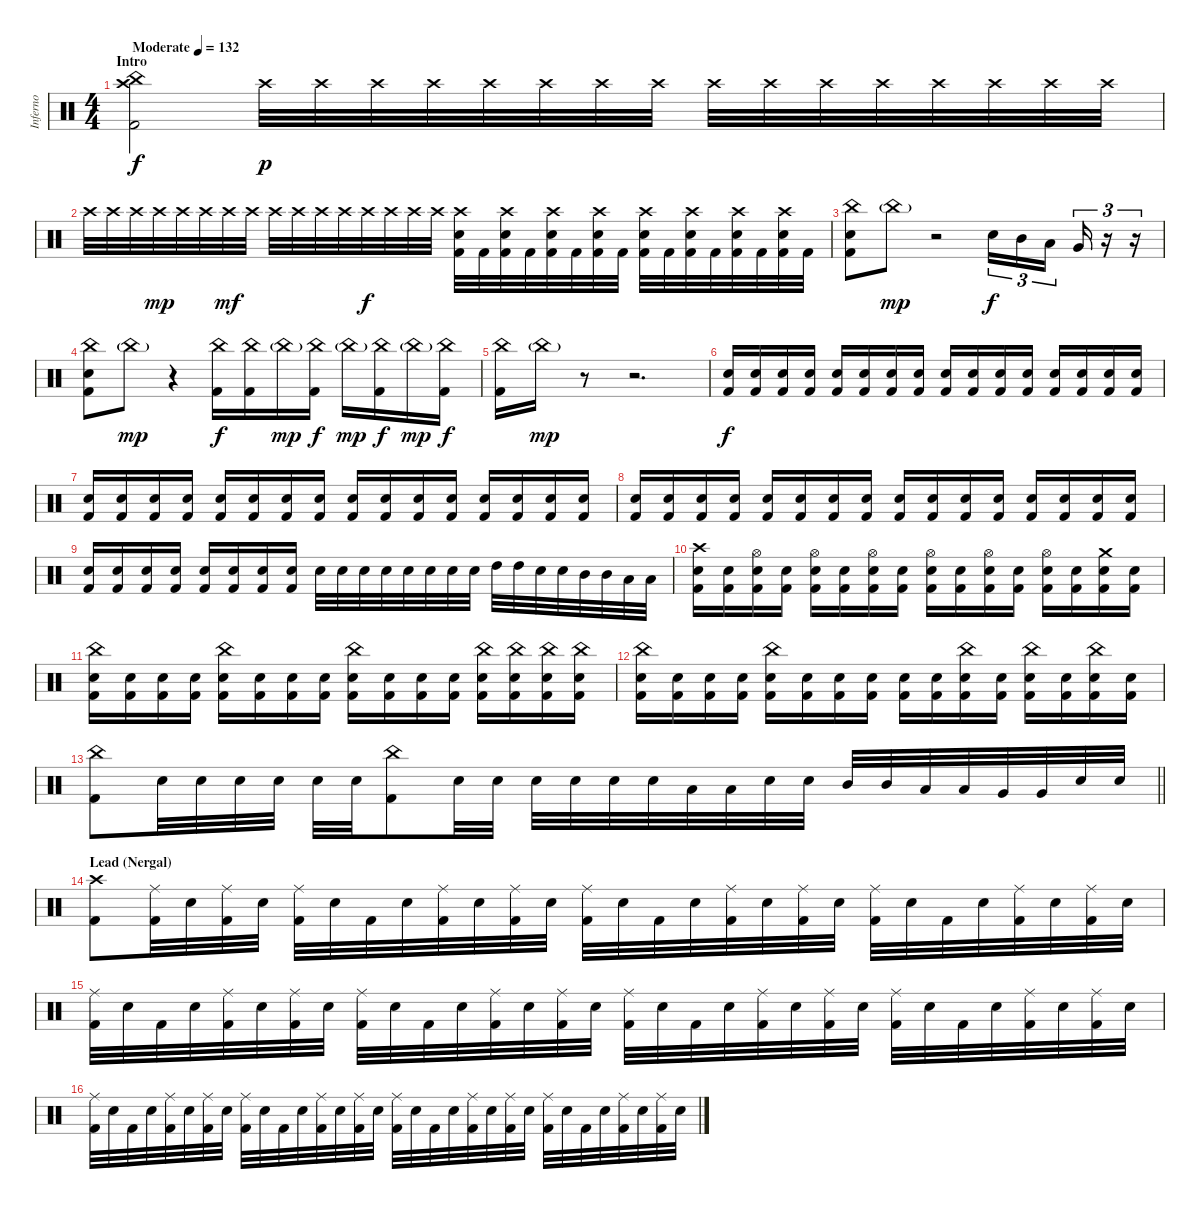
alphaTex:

\track ("Inferno" "Inferno") {instrument percussion}
\staff {score}
\articulation defaults
\ts (4 4)
\section ("" "Intro")
\tempo (132 "Moderate")
\clef neutral
\ks c
("Crash high (hit)" "China (hit)" "Kick (hit) 2").2{dy f} "Crash high (hit)".32{dy p} "Crash high (hit)".32 "Crash high (hit)".32 "Crash high (hit)".32 "Crash high (hit)".32 "Crash high (hit)".32 "Crash high (hit)".32 "Crash high (hit)".32 "Crash high (hit)".32 "Crash high (hit)".32 "Crash high (hit)".32 "Crash high (hit)".32 "Crash high (hit)".32 "Crash high (hit)".32 "Crash high (hit)".32 "Crash high (hit)".32 |
"Crash high (hit)".32 "Crash high (hit)".32 "Crash high (hit)".32 "Crash high (hit)".32{dy mp} "Crash high (hit)".32 "Crash high (hit)".32 "Crash high (hit)".32{dy mf} "Crash high (hit)".32 "Crash high (hit)".32 "Crash high (hit)".32 "Crash high (hit)".32 "Crash high (hit)".32 "Crash high (hit)".32{dy f} "Crash high (hit)".32 "Crash high (hit)".32 "Crash high (hit)".32 ("Crash high (hit)" "Electric Snare (hit)" "Kick (hit) 2").32 "Kick (hit) 2".32 ("Crash high (hit)" "Electric Snare (hit)" "Kick (hit) 2").32 "Kick (hit) 2".32 ("Crash high (hit)" "Electric Snare (hit)" "Kick (hit) 2").32 "Kick (hit) 2".32 ("Crash high (hit)" "Electric Snare (hit)" "Kick (hit) 2").32 "Kick (hit) 2".32 ("Crash high (hit)" "Electric Snare (hit)" "Kick (hit) 2").32 "Kick (hit) 2".32 ("Crash high (hit)" "Electric Snare (hit)" "Kick (hit) 2").32 "Kick (hit) 2".32 ("Crash high (hit)" "Electric Snare (hit)" "Kick (hit) 2").32 "Kick (hit) 2".32 ("Crash high (hit)" "Electric Snare (hit)" "Kick (hit) 2").32 "Kick (hit) 2".32 |
("China (hit)" "Electric Snare (hit)" "Kick (hit) 2").8 "China (hit)"{g}.8{dy mp} r.2 "Electric Snare (hit)".16{tu (3 2) dy f} "Mid Tom (hit)".16{tu (3 2)} "Low Tom (hit)".16{tu (3 2) beam splitsecondary} "Very Low Tom (hit)".16{tu (3 2)} r.16{tu (3 2)} r.16{tu (3 2)} |
("China (hit)" "Electric Snare (hit)" "Kick (hit) 2").8 "China (hit)"{g}.8{dy mp} r.4 ("China (hit)" "Kick (hit) 2").16{dy f} ("China (hit)" "Kick (hit) 2").16 "China (hit)"{g}.16{dy mp} ("China (hit)" "Kick (hit) 2").16{dy f} "China (hit)"{g}.16{dy mp} ("China (hit)" "Kick (hit) 2").16{dy f} "China (hit)"{g}.16{dy mp} ("China (hit)" "Kick (hit) 2").16{dy f} |
("China (hit)" "Kick (hit) 2").16 "China (hit)"{g}.16{dy mp} r.8 r.2{d} |
("Electric Snare (hit)" "Kick (hit) 2").16{dy f} ("Electric Snare (hit)" "Kick (hit) 2").16 ("Electric Snare (hit)" "Kick (hit) 2").16 ("Electric Snare (hit)" "Kick (hit) 2").16 ("Electric Snare (hit)" "Kick (hit) 2").16 ("Electric Snare (hit)" "Kick (hit) 2").16 ("Electric Snare (hit)" "Kick (hit) 2").16 ("Electric Snare (hit)" "Kick (hit) 2").16 ("Electric Snare (hit)" "Kick (hit) 2").16 ("Electric Snare (hit)" "Kick (hit) 2").16 ("Electric Snare (hit)" "Kick (hit) 2").16 ("Electric Snare (hit)" "Kick (hit) 2").16 ("Electric Snare (hit)" "Kick (hit) 2").16 ("Electric Snare (hit)" "Kick (hit) 2").16 ("Electric Snare (hit)" "Kick (hit) 2").16 ("Electric Snare (hit)" "Kick (hit) 2").16 |
("Electric Snare (hit)" "Kick (hit) 2").16 ("Electric Snare (hit)" "Kick (hit) 2").16 ("Electric Snare (hit)" "Kick (hit) 2").16 ("Electric Snare (hit)" "Kick (hit) 2").16 ("Electric Snare (hit)" "Kick (hit) 2").16 ("Electric Snare (hit)" "Kick (hit) 2").16 ("Electric Snare (hit)" "Kick (hit) 2").16 ("Electric Snare (hit)" "Kick (hit) 2").16 ("Electric Snare (hit)" "Kick (hit) 2").16 ("Electric Snare (hit)" "Kick (hit) 2").16 ("Electric Snare (hit)" "Kick (hit) 2").16 ("Electric Snare (hit)" "Kick (hit) 2").16 ("Electric Snare (hit)" "Kick (hit) 2").16 ("Electric Snare (hit)" "Kick (hit) 2").16 ("Electric Snare (hit)" "Kick (hit) 2").16 ("Electric Snare (hit)" "Kick (hit) 2").16 |
("Electric Snare (hit)" "Kick (hit) 2").16 ("Electric Snare (hit)" "Kick (hit) 2").16 ("Electric Snare (hit)" "Kick (hit) 2").16 ("Electric Snare (hit)" "Kick (hit) 2").16 ("Electric Snare (hit)" "Kick (hit) 2").16 ("Electric Snare (hit)" "Kick (hit) 2").16 ("Electric Snare (hit)" "Kick (hit) 2").16 ("Electric Snare (hit)" "Kick (hit) 2").16 ("Electric Snare (hit)" "Kick (hit) 2").16 ("Electric Snare (hit)" "Kick (hit) 2").16 ("Electric Snare (hit)" "Kick (hit) 2").16 ("Electric Snare (hit)" "Kick (hit) 2").16 ("Electric Snare (hit)" "Kick (hit) 2").16 ("Electric Snare (hit)" "Kick (hit) 2").16 ("Electric Snare (hit)" "Kick (hit) 2").16 ("Electric Snare (hit)" "Kick (hit) 2").16 |
("Electric Snare (hit)" "Kick (hit) 2").16 ("Electric Snare (hit)" "Kick (hit) 2").16 ("Electric Snare (hit)" "Kick (hit) 2").16 ("Electric Snare (hit)" "Kick (hit) 2").16 ("Electric Snare (hit)" "Kick (hit) 2").16 ("Electric Snare (hit)" "Kick (hit) 2").16 ("Electric Snare (hit)" "Kick (hit) 2").16 ("Electric Snare (hit)" "Kick (hit) 2").16 "Electric Snare (hit)".32 "Electric Snare (hit)".32 "Electric Snare (hit)".32 "Electric Snare (hit)".32 "Electric Snare (hit)".32 "Electric Snare (hit)".32 "Electric Snare (hit)".32 "Electric Snare (hit)".32 "High Tom (hit)".32 "High Tom (hit)".32 "Electric Snare (hit)".32 "Electric Snare (hit)".32 "Mid Tom (hit)".32 "Mid Tom (hit)".32 "Low Tom (hit)".32 "Low Tom (hit)".32 |
("Crash high (hit)" "Electric Snare (hit)" "Kick (hit) 2").16 ("Electric Snare (hit)" "Kick (hit) 2").16 ("Hi-Hat (open)" "Electric Snare (hit)" "Kick (hit) 2").16 ("Electric Snare (hit)" "Kick (hit) 2").16 ("Hi-Hat (open)" "Electric Snare (hit)" "Kick (hit) 2").16 ("Electric Snare (hit)" "Kick (hit) 2").16 ("Hi-Hat (open)" "Electric Snare (hit)" "Kick (hit) 2").16 ("Electric Snare (hit)" "Kick (hit) 2").16 ("Hi-Hat (open)" "Electric Snare (hit)" "Kick (hit) 2").16 ("Electric Snare (hit)" "Kick (hit) 2").16 ("Hi-Hat (open)" "Electric Snare (hit)" "Kick (hit) 2").16 ("Electric Snare (hit)" "Kick (hit) 2").16 ("Hi-Hat (open)" "Electric Snare (hit)" "Kick (hit) 2").16 ("Electric Snare (hit)" "Kick (hit) 2").16 ("Crash medium (hit)" "Electric Snare (hit)" "Kick (hit) 2").16 ("Electric Snare (hit)" "Kick (hit) 2").16 |
("China (hit)" "Electric Snare (hit)" "Kick (hit) 2").16 ("Electric Snare (hit)" "Kick (hit) 2").16 ("Electric Snare (hit)" "Kick (hit) 2").16 ("Electric Snare (hit)" "Kick (hit) 2").16 ("China (hit)" "Electric Snare (hit)" "Kick (hit) 2").16 ("Electric Snare (hit)" "Kick (hit) 2").16 ("Electric Snare (hit)" "Kick (hit) 2").16 ("Electric Snare (hit)" "Kick (hit) 2").16 ("China (hit)" "Electric Snare (hit)" "Kick (hit) 2").16 ("Electric Snare (hit)" "Kick (hit) 2").16 ("Electric Snare (hit)" "Kick (hit) 2").16 ("Electric Snare (hit)" "Kick (hit) 2").16 ("China (hit)" "Electric Snare (hit)" "Kick (hit) 2").16 ("China (hit)" "Electric Snare (hit)" "Kick (hit) 2").16 ("China (hit)" "Electric Snare (hit)" "Kick (hit) 2").16 ("China (hit)" "Electric Snare (hit)" "Kick (hit) 2").16 |
("China (hit)" "Electric Snare (hit)" "Kick (hit) 2").16 ("Electric Snare (hit)" "Kick (hit) 2").16 ("Electric Snare (hit)" "Kick (hit) 2").16 ("Electric Snare (hit)" "Kick (hit) 2").16 ("China (hit)" "Electric Snare (hit)" "Kick (hit) 2").16 ("Electric Snare (hit)" "Kick (hit) 2").16 ("Electric Snare (hit)" "Kick (hit) 2").16 ("Electric Snare (hit)" "Kick (hit) 2").16 ("Electric Snare (hit)" "Kick (hit) 2").16 ("Electric Snare (hit)" "Kick (hit) 2").16 ("China (hit)" "Electric Snare (hit)" "Kick (hit) 2").16 ("Electric Snare (hit)" "Kick (hit) 2").16 ("China (hit)" "Electric Snare (hit)" "Kick (hit) 2").16 ("Electric Snare (hit)" "Kick (hit) 2").16 ("China (hit)" "Electric Snare (hit)" "Kick (hit) 2").16 ("Electric Snare (hit)" "Kick (hit) 2").16 |
\barLineRight lightlight
("China (hit)" "Kick (hit) 2").8 "Electric Snare (hit)".32 "Electric Snare (hit)".32 "Electric Snare (hit)".32 "Electric Snare (hit)".32 "Electric Snare (hit)".32 "Electric Snare (hit)".32 ("China (hit)" "Kick (hit) 2").8 "Electric Snare (hit)".32 "Electric Snare (hit)".32 "Electric Snare (hit)".32 "Electric Snare (hit)".32 "Electric Snare (hit)".32 "Electric Snare (hit)".32 "Low Tom (hit)".32 "Low Tom (hit)".32 "Electric Snare (hit)".32 "Electric Snare (hit)".32 "Mid Tom (hit)".32 "Mid Tom (hit)".32 "Low Tom (hit)".32 "Low Tom (hit)".32 "Very Low Tom (hit)".32 "Very Low Tom (hit)".32 "Electric Snare (hit)".32 "Electric Snare (hit)".32 |
\section ("" "Lead (Nergal)")
("Crash high (hit)" "Kick (hit) 2").8 ("Ride (middle)" "Kick (hit) 2").32 "Electric Snare (hit)".32 ("Ride (middle)" "Kick (hit) 2").32 "Electric Snare (hit)".32 ("Ride (middle)" "Kick (hit) 2").32 "Electric Snare (hit)".32 "Kick (hit) 2".32 "Electric Snare (hit)".32 ("Ride (middle)" "Kick (hit) 2").32 "Electric Snare (hit)".32 ("Ride (middle)" "Kick (hit) 2").32 "Electric Snare (hit)".32 ("Ride (middle)" "Kick (hit) 2").32 "Electric Snare (hit)".32 "Kick (hit) 2".32 "Electric Snare (hit)".32 ("Ride (middle)" "Kick (hit) 2").32 "Electric Snare (hit)".32 ("Ride (middle)" "Kick (hit) 2").32 "Electric Snare (hit)".32 ("Ride (middle)" "Kick (hit) 2").32 "Electric Snare (hit)".32 "Kick (hit) 2".32 "Electric Snare (hit)".32 ("Ride (middle)" "Kick (hit) 2").32 "Electric Snare (hit)".32 ("Ride (middle)" "Kick (hit) 2").32 "Electric Snare (hit)".32 |
("Ride (middle)" "Kick (hit) 2").32 "Electric Snare (hit)".32 "Kick (hit) 2".32 "Electric Snare (hit)".32 ("Ride (middle)" "Kick (hit) 2").32 "Electric Snare (hit)".32 ("Ride (middle)" "Kick (hit) 2").32 "Electric Snare (hit)".32 ("Ride (middle)" "Kick (hit) 2").32 "Electric Snare (hit)".32 "Kick (hit) 2".32 "Electric Snare (hit)".32 ("Ride (middle)" "Kick (hit) 2").32 "Electric Snare (hit)".32 ("Ride (middle)" "Kick (hit) 2").32 "Electric Snare (hit)".32 ("Ride (middle)" "Kick (hit) 2").32 "Electric Snare (hit)".32 "Kick (hit) 2".32 "Electric Snare (hit)".32 ("Ride (middle)" "Kick (hit) 2").32 "Electric Snare (hit)".32 ("Ride (middle)" "Kick (hit) 2").32 "Electric Snare (hit)".32 ("Ride (middle)" "Kick (hit) 2").32 "Electric Snare (hit)".32 "Kick (hit) 2".32 "Electric Snare (hit)".32 ("Ride (middle)" "Kick (hit) 2").32 "Electric Snare (hit)".32 ("Ride (middle)" "Kick (hit) 2").32 "Electric Snare (hit)".32 |
("Ride (middle)" "Kick (hit) 2").32 "Electric Snare (hit)".32 "Kick (hit) 2".32 "Electric Snare (hit)".32 ("Ride (middle)" "Kick (hit) 2").32 "Electric Snare (hit)".32 ("Ride (middle)" "Kick (hit) 2").32 "Electric Snare (hit)".32 ("Ride (middle)" "Kick (hit) 2").32 "Electric Snare (hit)".32 "Kick (hit) 2".32 "Electric Snare (hit)".32 ("Ride (middle)" "Kick (hit) 2").32 "Electric Snare (hit)".32 ("Ride (middle)" "Kick (hit) 2").32 "Electric Snare (hit)".32 ("Ride (middle)" "Kick (hit) 2").32 "Electric Snare (hit)".32 "Kick (hit) 2".32 "Electric Snare (hit)".32 ("Ride (middle)" "Kick (hit) 2").32 "Electric Snare (hit)".32 ("Ride (middle)" "Kick (hit) 2").32 "Electric Snare (hit)".32 ("Ride (middle)" "Kick (hit) 2").32 "Electric Snare (hit)".32 "Kick (hit) 2".32 "Electric Snare (hit)".32 ("Ride (middle)" "Kick (hit) 2").32 "Electric Snare (hit)".32 ("Ride (middle)" "Kick (hit) 2").32 "Electric Snare (hit)".32
